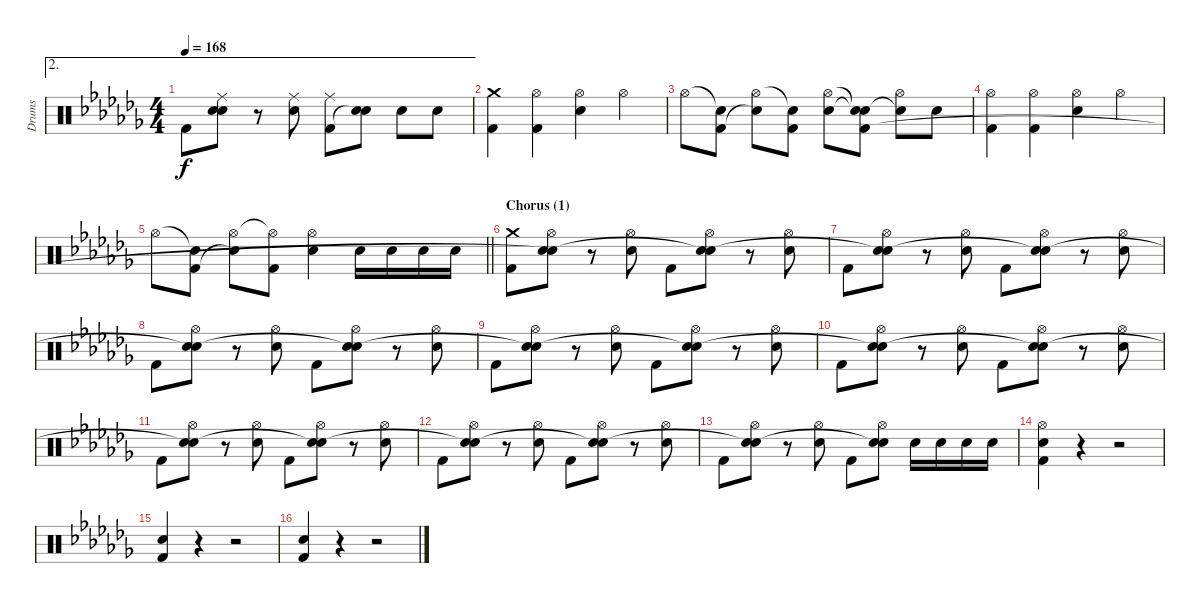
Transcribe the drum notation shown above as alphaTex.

\track ("Drums" "Drums") {instrument percussion}
\staff {score}
\articulation defaults
\ae 2
\ts (4 4)
\tempo 168
\clef neutral
\ks abminor "Kick (hit) 2".8{dy f}
("Ride (middle)" "Electric Snare (hit)" "Snare (hit)").8 r.8 ("Ride (middle)" "Electric Snare (hit)").8 ("Ride (middle)" "Kick (hit) 2").8 ("Electric Snare (hit)" "Snare (hit)"{t}).8 "Electric Snare (hit)".8 "Electric Snare (hit)".8 |
("Crash medium (hit)" "Kick (hit) 2").4 ("Hi-Hat (open)" "Kick (hit) 2").4 ("Hi-Hat (open)" "Electric Snare (hit)").4 "Hi-Hat (open)".4 |
"Hi-Hat (open)".8 ("Snare (hit)"{t} "Kick (hit) 2").8 ("Hi-Hat (open)" "Snare (hit)"{t}).8 ("Snare (hit)"{t} "Kick (hit) 2").8 ("Hi-Hat (open)" "Electric Snare (hit)").8 ("Snare (hit)"{t} "Snare (hit)"{t} "Kick (hit) 2").8 ("Hi-Hat (open)" "Snare (hit)"{t}).8 "Electric Snare (hit)".8 |
("Hi-Hat (open)" "Kick (hit) 2").4 ("Hi-Hat (open)" "Kick (hit) 2").4 ("Hi-Hat (open)" "Electric Snare (hit)").4 "Hi-Hat (open)".4 |
\barLineRight lightlight "Hi-Hat (open)".8
("Snare (hit)"{t} "Kick (hit) 2").8 ("Hi-Hat (open)" "Snare (hit)"{t}).8 ("Hi-Hat (open)"{t} "Kick (hit) 2").8 ("Hi-Hat (open)" "Electric Snare (hit)").4 "Electric Snare (hit)".16 "Electric Snare (hit)".16 "Electric Snare (hit)".16 "Electric Snare (hit)".16 |
\section ("" "Chorus (1)")
("Crash medium (hit)" "Kick (hit) 2").8 ("Hi-Hat (open)" "Electric Snare (hit)" "Snare (hit)"{t}).8 r.8 ("Hi-Hat (open)" "Electric Snare (hit)").8 "Kick (hit) 2".8 ("Hi-Hat (open)" "Electric Snare (hit)" "Snare (hit)"{t}).8 r.8 ("Hi-Hat (open)" "Electric Snare (hit)").8 |
"Kick (hit) 2".8 ("Hi-Hat (open)" "Electric Snare (hit)" "Snare (hit)"{t}).8 r.8 ("Hi-Hat (open)" "Electric Snare (hit)").8 "Kick (hit) 2".8 ("Hi-Hat (open)" "Electric Snare (hit)" "Snare (hit)"{t}).8 r.8 ("Hi-Hat (open)" "Electric Snare (hit)").8 |
"Kick (hit) 2".8 ("Hi-Hat (open)" "Electric Snare (hit)" "Snare (hit)"{t}).8 r.8 ("Hi-Hat (open)" "Electric Snare (hit)").8 "Kick (hit) 2".8 ("Hi-Hat (open)" "Electric Snare (hit)" "Snare (hit)"{t}).8 r.8 ("Hi-Hat (open)" "Electric Snare (hit)").8 |
"Kick (hit) 2".8 ("Hi-Hat (open)" "Electric Snare (hit)" "Snare (hit)"{t}).8 r.8 ("Hi-Hat (open)" "Electric Snare (hit)").8 "Kick (hit) 2".8 ("Hi-Hat (open)" "Electric Snare (hit)" "Snare (hit)"{t}).8 r.8 ("Hi-Hat (open)" "Electric Snare (hit)").8 |
"Kick (hit) 2".8 ("Hi-Hat (open)" "Electric Snare (hit)" "Snare (hit)"{t}).8 r.8 ("Hi-Hat (open)" "Electric Snare (hit)").8 "Kick (hit) 2".8 ("Hi-Hat (open)" "Electric Snare (hit)" "Snare (hit)"{t}).8 r.8 ("Hi-Hat (open)" "Electric Snare (hit)").8 |
"Kick (hit) 2".8 ("Hi-Hat (open)" "Electric Snare (hit)" "Snare (hit)"{t}).8 r.8 ("Hi-Hat (open)" "Electric Snare (hit)").8 "Kick (hit) 2".8 ("Hi-Hat (open)" "Electric Snare (hit)" "Snare (hit)"{t}).8 r.8 ("Hi-Hat (open)" "Electric Snare (hit)").8 |
"Kick (hit) 2".8 ("Hi-Hat (open)" "Electric Snare (hit)" "Snare (hit)"{t}).8 r.8 ("Hi-Hat (open)" "Electric Snare (hit)").8 "Kick (hit) 2".8 ("Hi-Hat (open)" "Electric Snare (hit)" "Snare (hit)"{t}).8 r.8 ("Hi-Hat (open)" "Electric Snare (hit)").8 |
"Kick (hit) 2".8 ("Hi-Hat (open)" "Electric Snare (hit)" "Snare (hit)"{t}).8 r.8 ("Hi-Hat (open)" "Electric Snare (hit)").8 "Kick (hit) 2".8 ("Hi-Hat (open)" "Electric Snare (hit)" "Snare (hit)"{t}).8 "Electric Snare (hit)".16 "Electric Snare (hit)".16 "Electric Snare (hit)".16 "Electric Snare (hit)".16 |
("Hi-Hat (open)" "Electric Snare (hit)" "Kick (hit) 2").4 r.4 r.2 |
("Electric Snare (hit)" "Kick (hit) 2").4 r.4 r.2 |
("Electric Snare (hit)" "Kick (hit) 2").4 r.4 r.2
